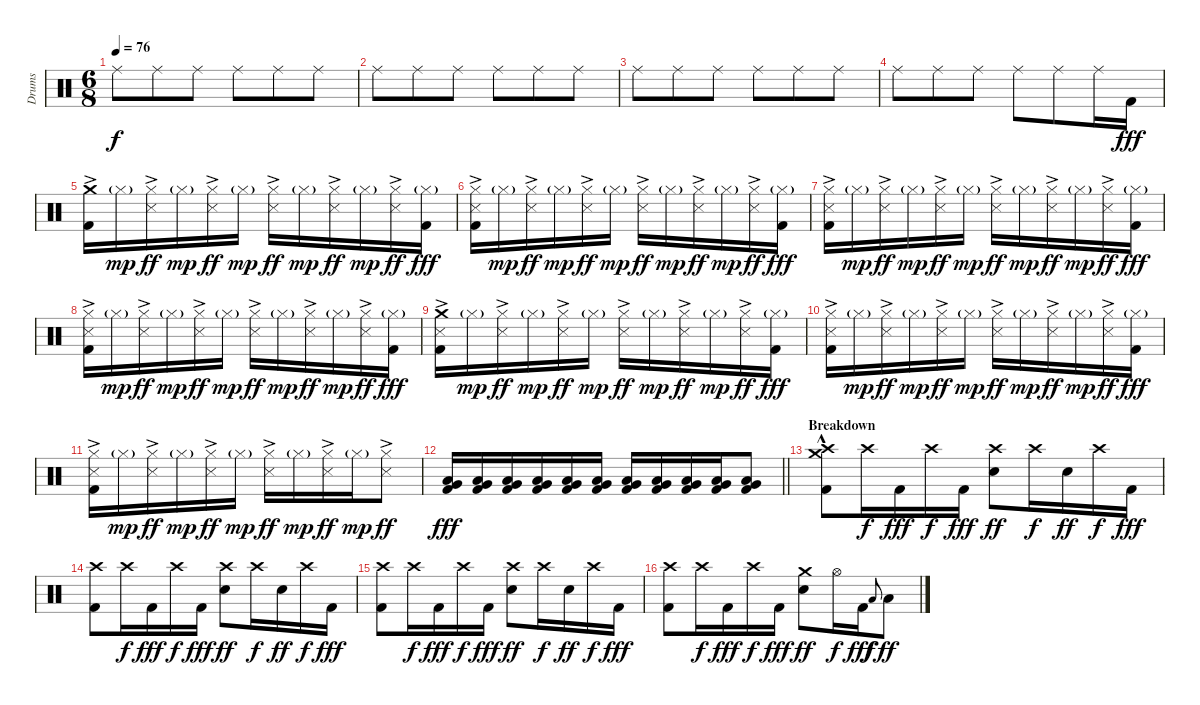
\track ("Drums" "Drums") {instrument percussion}
\staff {score}
\articulation defaults
\ts (6 8)
\tempo 76
\clef neutral
\ks c "Ride (middle)".8{dy f} "Ride (middle)".8 "Ride (middle)".8 "Ride (middle)".8 "Ride (middle)".8 "Ride (middle)".8
|
"Ride (middle)".8 "Ride (middle)".8 "Ride (middle)".8 "Ride (middle)".8 "Ride (middle)".8 "Ride (middle)".8 |
"Ride (middle)".8 "Ride (middle)".8 "Ride (middle)".8 "Ride (middle)".8 "Ride (middle)".8 "Ride (middle)".8 |
"Ride (middle)".8 "Ride (middle)".8 "Ride (middle)".8 "Ride (middle)".8 "Ride (middle)".8 "Ride (middle)".16 "Kick (hit) 2".16{dy fff} |
("Crash medium (hit)"{ac} "Kick (hit) 2").16 "Hi-Hat (closed)"{g}.16{dy mp} ("Hi-Hat (closed)"{ac} "Snare (side stick) 3").16{dy ff} "Hi-Hat (closed)"{g}.16{dy mp} ("Hi-Hat (closed)"{ac} "Snare (side stick) 3").16{dy ff} "Hi-Hat (closed)"{g}.16{dy mp} ("Hi-Hat (closed)"{ac} "Snare (side stick) 3").16{dy ff} "Hi-Hat (closed)"{g}.16{dy mp} ("Hi-Hat (closed)"{ac} "Snare (side stick) 3").16{dy ff} "Hi-Hat (closed)"{g}.16{dy mp} ("Hi-Hat (closed)"{ac} "Snare (side stick) 3").16{dy ff} ("Hi-Hat (closed)"{g} "Kick (hit) 2").16{dy fff} |
("Hi-Hat (closed)"{ac} "Snare (side stick) 3" "Kick (hit) 2").16 "Hi-Hat (closed)"{g}.16{dy mp} ("Hi-Hat (closed)"{ac} "Snare (side stick) 3").16{dy ff} "Hi-Hat (closed)"{g}.16{dy mp} ("Hi-Hat (closed)"{ac} "Snare (side stick) 3").16{dy ff} "Hi-Hat (closed)"{g}.16{dy mp} ("Hi-Hat (closed)"{ac} "Snare (side stick) 3").16{dy ff} "Hi-Hat (closed)"{g}.16{dy mp} ("Hi-Hat (closed)"{ac} "Snare (side stick) 3").16{dy ff} "Hi-Hat (closed)"{g}.16{dy mp} ("Hi-Hat (closed)"{ac} "Snare (side stick) 3").16{dy ff} ("Hi-Hat (closed)"{g} "Kick (hit) 2").16{dy fff} |
("Hi-Hat (closed)"{ac} "Snare (side stick) 3" "Kick (hit) 2").16 "Hi-Hat (closed)"{g}.16{dy mp} ("Hi-Hat (closed)"{ac} "Snare (side stick) 3").16{dy ff} "Hi-Hat (closed)"{g}.16{dy mp} ("Hi-Hat (closed)"{ac} "Snare (side stick) 3").16{dy ff} "Hi-Hat (closed)"{g}.16{dy mp} ("Hi-Hat (closed)"{ac} "Snare (side stick) 3").16{dy ff} "Hi-Hat (closed)"{g}.16{dy mp} ("Hi-Hat (closed)"{ac} "Snare (side stick) 3").16{dy ff} "Hi-Hat (closed)"{g}.16{dy mp} ("Hi-Hat (closed)"{ac} "Snare (side stick) 3").16{dy ff} ("Hi-Hat (closed)"{g} "Kick (hit) 2").16{dy fff} |
("Hi-Hat (closed)"{ac} "Snare (side stick) 3" "Kick (hit) 2").16 "Hi-Hat (closed)"{g}.16{dy mp} ("Hi-Hat (closed)"{ac} "Snare (side stick) 3").16{dy ff} "Hi-Hat (closed)"{g}.16{dy mp} ("Hi-Hat (closed)"{ac} "Snare (side stick) 3").16{dy ff} "Hi-Hat (closed)"{g}.16{dy mp} ("Hi-Hat (closed)"{ac} "Snare (side stick) 3").16{dy ff} "Hi-Hat (closed)"{g}.16{dy mp} ("Hi-Hat (closed)"{ac} "Snare (side stick) 3").16{dy ff} "Hi-Hat (closed)"{g}.16{dy mp} ("Hi-Hat (closed)"{ac} "Snare (side stick) 3").16{dy ff} ("Hi-Hat (closed)"{g} "Kick (hit) 2").16{dy fff} |
("Crash medium (hit)"{ac} "Snare (side stick) 3" "Kick (hit) 2").16 "Hi-Hat (closed)"{g}.16{dy mp} ("Hi-Hat (closed)"{ac} "Snare (side stick) 3").16{dy ff} "Hi-Hat (closed)"{g}.16{dy mp} ("Hi-Hat (closed)"{ac} "Snare (side stick) 3").16{dy ff} "Hi-Hat (closed)"{g}.16{dy mp} ("Hi-Hat (closed)"{ac} "Snare (side stick) 3").16{dy ff} "Hi-Hat (closed)"{g}.16{dy mp} ("Hi-Hat (closed)"{ac} "Snare (side stick) 3").16{dy ff} "Hi-Hat (closed)"{g}.16{dy mp} ("Hi-Hat (closed)"{ac} "Snare (side stick) 3").16{dy ff} ("Hi-Hat (closed)"{g} "Kick (hit) 2").16{dy fff} |
("Hi-Hat (closed)"{ac} "Snare (side stick) 3" "Kick (hit) 2").16 "Hi-Hat (closed)"{g}.16{dy mp} ("Hi-Hat (closed)"{ac} "Snare (side stick) 3").16{dy ff} "Hi-Hat (closed)"{g}.16{dy mp} ("Hi-Hat (closed)"{ac} "Snare (side stick) 3").16{dy ff} "Hi-Hat (closed)"{g}.16{dy mp} ("Hi-Hat (closed)"{ac} "Snare (side stick) 3").16{dy ff} "Hi-Hat (closed)"{g}.16{dy mp} ("Hi-Hat (closed)"{ac} "Snare (side stick) 3").16{dy ff} "Hi-Hat (closed)"{g}.16{dy mp} ("Hi-Hat (closed)"{ac} "Snare (side stick) 3").16{dy ff} ("Hi-Hat (closed)"{g} "Kick (hit) 2").16{dy fff} |
("Hi-Hat (closed)"{ac} "Snare (side stick) 3" "Kick (hit) 2").16 "Hi-Hat (closed)"{g}.16{dy mp} ("Hi-Hat (closed)"{ac} "Snare (side stick) 3").16{dy ff} "Hi-Hat (closed)"{g}.16{dy mp} ("Hi-Hat (closed)"{ac} "Snare (side stick) 3").16{dy ff} "Hi-Hat (closed)"{g}.16{dy mp} ("Hi-Hat (closed)"{ac} "Snare (side stick) 3").16{dy ff} "Hi-Hat (closed)"{g}.16{dy mp} ("Hi-Hat (closed)"{ac} "Snare (side stick) 3").16{dy ff} "Hi-Hat (closed)"{g}.16{dy mp} ("Hi-Hat (closed)"{ac} "Snare (side stick) 3").8{dy ff volume 8} |
\barLineRight lightlight
("Low Tom (hit)" "Very Low Tom (hit)" "Kick (hit) 2").16{dy fff volume 13} ("Low Tom (hit)" "Very Low Tom (hit)" "Kick (hit) 2").16 ("Low Tom (hit)" "Very Low Tom (hit)" "Kick (hit) 2").16 ("Low Tom (hit)" "Very Low Tom (hit)" "Kick (hit) 2").16 ("Low Tom (hit)" "Very Low Tom (hit)" "Kick (hit) 2").16 ("Low Tom (hit)" "Very Low Tom (hit)" "Kick (hit) 2").16 ("Low Tom (hit)" "Very Low Tom (hit)" "Kick (hit) 2").16 ("Low Tom (hit)" "Very Low Tom (hit)" "Kick (hit) 2").16 ("Low Tom (hit)" "Very Low Tom (hit)" "Kick (hit) 2").16 ("Low Tom (hit)" "Very Low Tom (hit)" "Kick (hit) 2").16 ("Low Tom (hit)" "Very Low Tom (hit)" "Kick (hit) 2").8 |
\section ("" "Breakdown")
("Crash medium (hit)"{hac} "Crash high (hit)"{hac} "Kick (hit) 2"{hac}).8 "Crash high (hit)".16{dy f} "Kick (hit) 2".16{dy fff} "Crash high (hit)".16{dy f} "Kick (hit) 2".16{dy fff} ("Crash high (hit)" "Snare (hit) 2").8{dy ff} "Crash high (hit)".16{dy f} "Snare (hit) 2".16{dy ff} "Crash high (hit)".16{dy f} "Kick (hit) 2".16{dy fff} |
("Crash high (hit)" "Kick (hit) 2").8 "Crash high (hit)".16{dy f} "Kick (hit) 2".16{dy fff} "Crash high (hit)".16{dy f} "Kick (hit) 2".16{dy fff} ("Crash high (hit)" "Snare (hit) 2").8{dy ff} "Crash high (hit)".16{dy f} "Snare (hit) 2".16{dy ff} "Crash high (hit)".16{dy f} "Kick (hit) 2".16{dy fff} |
("Crash high (hit)" "Kick (hit) 2").8 "Crash high (hit)".16{dy f} "Kick (hit) 2".16{dy fff} "Crash high (hit)".16{dy f} "Kick (hit) 2".16{dy fff} ("Crash high (hit)" "Snare (hit) 2").8{dy ff} "Crash high (hit)".16{dy f} "Snare (hit) 2".16{dy ff} "Crash high (hit)".16{dy f} "Kick (hit) 2".16{dy fff} |
("Crash high (hit)" "Kick (hit) 2").8 "Crash high (hit)".16{dy f} "Kick (hit) 2".16{dy fff} "Crash high (hit)".16{dy f} "Kick (hit) 2".16{dy fff} ("Crash medium (hit)" "Snare (hit) 2").8{dy ff} "Hi-Hat (open)".16{dy f} "Kick (hit) 2".16{dy fff} "Low Tom (hit)".8{gr onbeat dy f} "Low Tom (hit)".8{dy ff}
